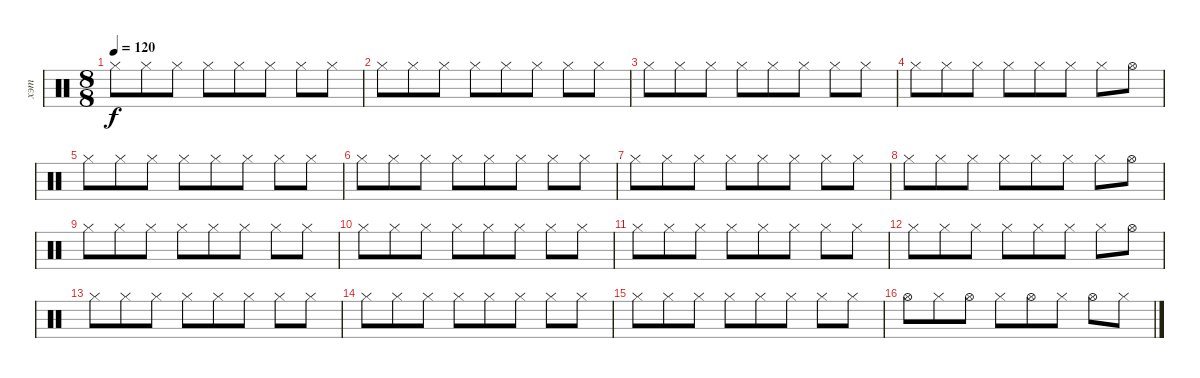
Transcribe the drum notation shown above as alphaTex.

\track ("хэт" "хэт") {instrument percussion}
\staff {score}
\articulation defaults
\ts (8 8)
\tempo 120
\clef neutral
\ks c "Hi-Hat (closed)".8{dy f} "Hi-Hat (closed)".8 "Hi-Hat (closed)".8 "Hi-Hat (closed)".8 "Hi-Hat (closed)".8 "Hi-Hat (closed)".8 "Hi-Hat (closed)".8 "Hi-Hat (closed)".8
|
"Hi-Hat (closed)".8 "Hi-Hat (closed)".8 "Hi-Hat (closed)".8 "Hi-Hat (closed)".8 "Hi-Hat (closed)".8 "Hi-Hat (closed)".8 "Hi-Hat (closed)".8 "Hi-Hat (closed)".8 |
"Hi-Hat (closed)".8 "Hi-Hat (closed)".8 "Hi-Hat (closed)".8 "Hi-Hat (closed)".8 "Hi-Hat (closed)".8 "Hi-Hat (closed)".8 "Hi-Hat (closed)".8 "Hi-Hat (closed)".8 |
"Hi-Hat (closed)".8 "Hi-Hat (closed)".8 "Hi-Hat (closed)".8 "Hi-Hat (closed)".8 "Hi-Hat (closed)".8 "Hi-Hat (closed)".8 "Hi-Hat (closed)".8 "Hi-Hat (open)".8 |
"Hi-Hat (closed)".8 "Hi-Hat (closed)".8 "Hi-Hat (closed)".8 "Hi-Hat (closed)".8 "Hi-Hat (closed)".8 "Hi-Hat (closed)".8 "Hi-Hat (closed)".8 "Hi-Hat (closed)".8 |
"Hi-Hat (closed)".8 "Hi-Hat (closed)".8 "Hi-Hat (closed)".8 "Hi-Hat (closed)".8 "Hi-Hat (closed)".8 "Hi-Hat (closed)".8 "Hi-Hat (closed)".8 "Hi-Hat (closed)".8 |
"Hi-Hat (closed)".8 "Hi-Hat (closed)".8 "Hi-Hat (closed)".8 "Hi-Hat (closed)".8 "Hi-Hat (closed)".8 "Hi-Hat (closed)".8 "Hi-Hat (closed)".8 "Hi-Hat (closed)".8 |
"Hi-Hat (closed)".8 "Hi-Hat (closed)".8 "Hi-Hat (closed)".8 "Hi-Hat (closed)".8 "Hi-Hat (closed)".8 "Hi-Hat (closed)".8 "Hi-Hat (closed)".8 "Hi-Hat (open)".8 |
"Hi-Hat (closed)".8 "Hi-Hat (closed)".8 "Hi-Hat (closed)".8 "Hi-Hat (closed)".8 "Hi-Hat (closed)".8 "Hi-Hat (closed)".8 "Hi-Hat (closed)".8 "Hi-Hat (closed)".8 |
"Hi-Hat (closed)".8 "Hi-Hat (closed)".8 "Hi-Hat (closed)".8 "Hi-Hat (closed)".8 "Hi-Hat (closed)".8 "Hi-Hat (closed)".8 "Hi-Hat (closed)".8 "Hi-Hat (closed)".8 |
"Hi-Hat (closed)".8 "Hi-Hat (closed)".8 "Hi-Hat (closed)".8 "Hi-Hat (closed)".8 "Hi-Hat (closed)".8 "Hi-Hat (closed)".8 "Hi-Hat (closed)".8 "Hi-Hat (closed)".8 |
"Hi-Hat (closed)".8 "Hi-Hat (closed)".8 "Hi-Hat (closed)".8 "Hi-Hat (closed)".8 "Hi-Hat (closed)".8 "Hi-Hat (closed)".8 "Hi-Hat (closed)".8 "Hi-Hat (open)".8 |
"Hi-Hat (closed)".8 "Hi-Hat (closed)".8 "Hi-Hat (closed)".8 "Hi-Hat (closed)".8 "Hi-Hat (closed)".8 "Hi-Hat (closed)".8 "Hi-Hat (closed)".8 "Hi-Hat (closed)".8 |
"Hi-Hat (closed)".8 "Hi-Hat (closed)".8 "Hi-Hat (closed)".8 "Hi-Hat (closed)".8 "Hi-Hat (closed)".8 "Hi-Hat (closed)".8 "Hi-Hat (closed)".8 "Hi-Hat (closed)".8 |
"Hi-Hat (closed)".8 "Hi-Hat (closed)".8 "Hi-Hat (closed)".8 "Hi-Hat (closed)".8 "Hi-Hat (closed)".8 "Hi-Hat (closed)".8 "Hi-Hat (closed)".8 "Hi-Hat (closed)".8 |
"Hi-Hat (open)".8 "Hi-Hat (closed)".8 "Hi-Hat (open)".8 "Hi-Hat (closed)".8 "Hi-Hat (open)".8 "Hi-Hat (closed)".8 "Hi-Hat (open)".8 "Hi-Hat (closed)".8
